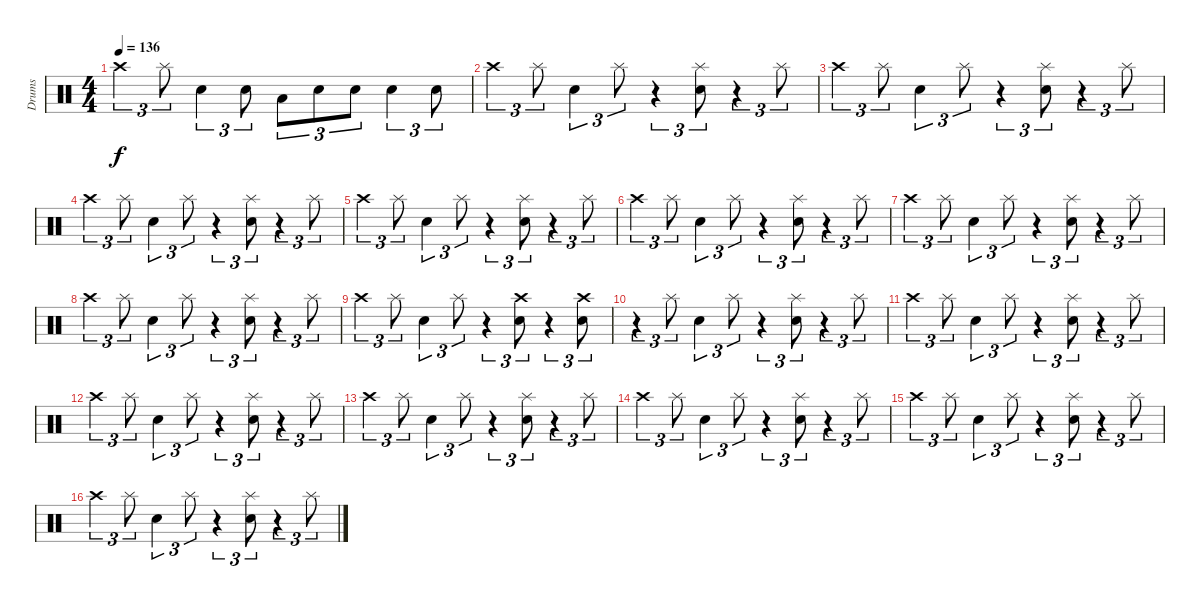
\track ("Drums" "Drums") {instrument percussion}
\staff {score}
\articulation defaults
\ts (4 4)
\tempo 136
\clef neutral
\ks c "Crash high (hit)".4{tu (3 2) dy f} "Splash (hit)".8{tu (3 2)} "Snare (hit) 2".4{tu (3 2)} "Snare (hit) 2".8{tu (3 2)} "Low Tom (hit)".8{tu (3 2)} "Snare (hit) 2".8{tu (3 2)} "Snare (hit) 2".8{tu (3 2)} "Snare (hit) 2".4{tu (3 2)} "Snare (hit) 2".8{tu (3 2)}
|
"Crash high (hit)".4{tu (3 2)} "Splash (hit)".8{tu (3 2)} "Snare (hit) 2".4{tu (3 2)} "Splash (hit)".8{tu (3 2)} r.4{tu (3 2)} ("Splash (hit)" "Snare (hit) 2").8{tu (3 2)} r.4{tu (3 2)} "Splash (hit)".8{tu (3 2)} |
"Crash high (hit)".4{tu (3 2)} "Splash (hit)".8{tu (3 2)} "Snare (hit) 2".4{tu (3 2)} "Splash (hit)".8{tu (3 2)} r.4{tu (3 2)} ("Splash (hit)" "Snare (hit) 2").8{tu (3 2)} r.4{tu (3 2)} "Splash (hit)".8{tu (3 2)} |
"Crash high (hit)".4{tu (3 2)} "Splash (hit)".8{tu (3 2)} "Snare (hit) 2".4{tu (3 2)} "Splash (hit)".8{tu (3 2)} r.4{tu (3 2)} ("Splash (hit)" "Snare (hit) 2").8{tu (3 2)} r.4{tu (3 2)} "Splash (hit)".8{tu (3 2)} |
"Crash high (hit)".4{tu (3 2)} "Splash (hit)".8{tu (3 2)} "Snare (hit) 2".4{tu (3 2)} "Splash (hit)".8{tu (3 2)} r.4{tu (3 2)} ("Splash (hit)" "Snare (hit) 2").8{tu (3 2)} r.4{tu (3 2)} "Splash (hit)".8{tu (3 2)} |
"Crash high (hit)".4{tu (3 2)} "Splash (hit)".8{tu (3 2)} "Snare (hit) 2".4{tu (3 2)} "Splash (hit)".8{tu (3 2)} r.4{tu (3 2)} ("Splash (hit)" "Snare (hit) 2").8{tu (3 2)} r.4{tu (3 2)} "Splash (hit)".8{tu (3 2)} |
"Crash high (hit)".4{tu (3 2)} "Splash (hit)".8{tu (3 2)} "Snare (hit) 2".4{tu (3 2)} "Splash (hit)".8{tu (3 2)} r.4{tu (3 2)} ("Splash (hit)" "Snare (hit) 2").8{tu (3 2)} r.4{tu (3 2)} "Splash (hit)".8{tu (3 2)} |
"Crash high (hit)".4{tu (3 2)} "Splash (hit)".8{tu (3 2)} "Snare (hit) 2".4{tu (3 2)} "Splash (hit)".8{tu (3 2)} r.4{tu (3 2)} ("Splash (hit)" "Snare (hit) 2").8{tu (3 2)} r.4{tu (3 2)} "Splash (hit)".8{tu (3 2)} |
"Crash high (hit)".4{tu (3 2)} "Splash (hit)".8{tu (3 2)} "Snare (hit) 2".4{tu (3 2)} "Splash (hit)".8{tu (3 2)} r.4{tu (3 2)} ("Crash high (hit)" "Snare (hit) 2").8{tu (3 2)} r.4{tu (3 2)} ("Crash high (hit)" "Snare (hit) 2").8{tu (3 2)} |
r.4{tu (3 2)} "Splash (hit)".8{tu (3 2)} "Snare (hit) 2".4{tu (3 2)} "Splash (hit)".8{tu (3 2)} r.4{tu (3 2)} ("Splash (hit)" "Snare (hit) 2").8{tu (3 2)} r.4{tu (3 2)} "Splash (hit)".8{tu (3 2)} |
"Crash high (hit)".4{tu (3 2)} "Splash (hit)".8{tu (3 2)} "Snare (hit) 2".4{tu (3 2)} "Splash (hit)".8{tu (3 2)} r.4{tu (3 2)} ("Splash (hit)" "Snare (hit) 2").8{tu (3 2)} r.4{tu (3 2)} "Splash (hit)".8{tu (3 2)} |
"Crash high (hit)".4{tu (3 2)} "Splash (hit)".8{tu (3 2)} "Snare (hit) 2".4{tu (3 2)} "Splash (hit)".8{tu (3 2)} r.4{tu (3 2)} ("Splash (hit)" "Snare (hit) 2").8{tu (3 2)} r.4{tu (3 2)} "Splash (hit)".8{tu (3 2)} |
"Crash high (hit)".4{tu (3 2)} "Splash (hit)".8{tu (3 2)} "Snare (hit) 2".4{tu (3 2)} "Splash (hit)".8{tu (3 2)} r.4{tu (3 2)} ("Splash (hit)" "Snare (hit) 2").8{tu (3 2)} r.4{tu (3 2)} "Splash (hit)".8{tu (3 2)} |
"Crash high (hit)".4{tu (3 2)} "Splash (hit)".8{tu (3 2)} "Snare (hit) 2".4{tu (3 2)} "Splash (hit)".8{tu (3 2)} r.4{tu (3 2)} ("Splash (hit)" "Snare (hit) 2").8{tu (3 2)} r.4{tu (3 2)} "Splash (hit)".8{tu (3 2)} |
"Crash high (hit)".4{tu (3 2)} "Splash (hit)".8{tu (3 2)} "Snare (hit) 2".4{tu (3 2)} "Splash (hit)".8{tu (3 2)} r.4{tu (3 2)} ("Splash (hit)" "Snare (hit) 2").8{tu (3 2)} r.4{tu (3 2)} "Splash (hit)".8{tu (3 2)} |
"Crash high (hit)".4{tu (3 2)} "Splash (hit)".8{tu (3 2)} "Snare (hit) 2".4{tu (3 2)} "Splash (hit)".8{tu (3 2)} r.4{tu (3 2)} ("Splash (hit)" "Snare (hit) 2").8{tu (3 2)} r.4{tu (3 2)} "Splash (hit)".8{tu (3 2)}
